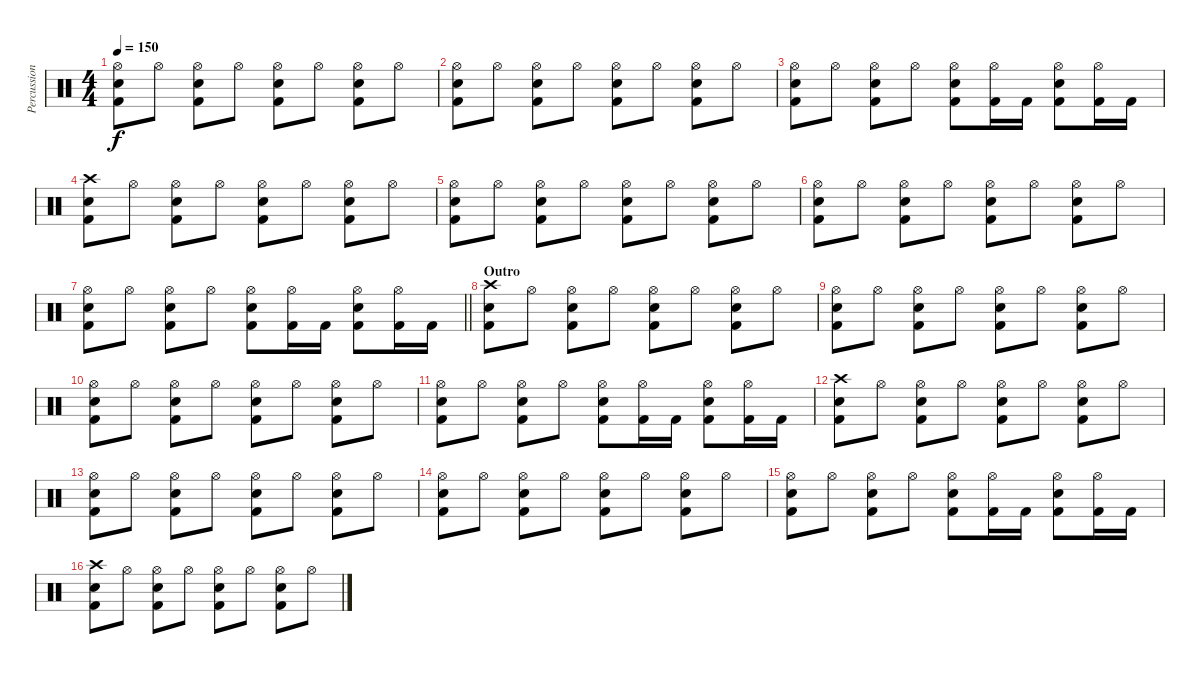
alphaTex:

\track ("Percussion" "Percussion") {instrument percussion}
\staff {score}
\articulation defaults
\ts (4 4)
\tempo 150
\clef neutral
\ks c
("Hi-Hat (open)" "Snare (hit) 2" "Kick (hit) 2").8{dy f} "Hi-Hat (open)".8 ("Hi-Hat (open)" "Snare (hit) 2" "Kick (hit) 2").8 "Hi-Hat (open)".8 ("Hi-Hat (open)" "Snare (hit) 2" "Kick (hit) 2").8 "Hi-Hat (open)".8 ("Hi-Hat (open)" "Snare (hit) 2" "Kick (hit) 2").8 "Hi-Hat (open)".8 |
("Hi-Hat (open)" "Snare (hit) 2" "Kick (hit) 2").8 "Hi-Hat (open)".8 ("Hi-Hat (open)" "Snare (hit) 2" "Kick (hit) 2").8 "Hi-Hat (open)".8 ("Hi-Hat (open)" "Snare (hit) 2" "Kick (hit) 2").8 "Hi-Hat (open)".8 ("Hi-Hat (open)" "Snare (hit) 2" "Kick (hit) 2").8 "Hi-Hat (open)".8 |
("Hi-Hat (open)" "Snare (hit) 2" "Kick (hit) 2").8 "Hi-Hat (open)".8 ("Hi-Hat (open)" "Snare (hit) 2" "Kick (hit) 2").8 "Hi-Hat (open)".8 ("Hi-Hat (open)" "Snare (hit) 2" "Kick (hit) 2").8 ("Hi-Hat (open)" "Kick (hit) 2").16 "Kick (hit) 2".16 ("Hi-Hat (open)" "Snare (hit) 2" "Kick (hit) 2").8 ("Hi-Hat (open)" "Kick (hit) 2").16 "Kick (hit) 2".16 |
("Crash high (hit)" "Snare (hit) 2" "Kick (hit) 2").8 "Hi-Hat (open)".8 ("Hi-Hat (open)" "Snare (hit) 2" "Kick (hit) 2").8 "Hi-Hat (open)".8 ("Hi-Hat (open)" "Snare (hit) 2" "Kick (hit) 2").8 "Hi-Hat (open)".8 ("Hi-Hat (open)" "Snare (hit) 2" "Kick (hit) 2").8 "Hi-Hat (open)".8 |
("Hi-Hat (open)" "Snare (hit) 2" "Kick (hit) 2").8 "Hi-Hat (open)".8 ("Hi-Hat (open)" "Snare (hit) 2" "Kick (hit) 2").8 "Hi-Hat (open)".8 ("Hi-Hat (open)" "Snare (hit) 2" "Kick (hit) 2").8 "Hi-Hat (open)".8 ("Hi-Hat (open)" "Snare (hit) 2" "Kick (hit) 2").8 "Hi-Hat (open)".8 |
("Hi-Hat (open)" "Snare (hit) 2" "Kick (hit) 2").8 "Hi-Hat (open)".8 ("Hi-Hat (open)" "Snare (hit) 2" "Kick (hit) 2").8 "Hi-Hat (open)".8 ("Hi-Hat (open)" "Snare (hit) 2" "Kick (hit) 2").8 "Hi-Hat (open)".8 ("Hi-Hat (open)" "Snare (hit) 2" "Kick (hit) 2").8 "Hi-Hat (open)".8 |
\barLineRight lightlight
("Hi-Hat (open)" "Snare (hit) 2" "Kick (hit) 2").8 "Hi-Hat (open)".8 ("Hi-Hat (open)" "Snare (hit) 2" "Kick (hit) 2").8 "Hi-Hat (open)".8 ("Hi-Hat (open)" "Snare (hit) 2" "Kick (hit) 2").8 ("Hi-Hat (open)" "Kick (hit) 2").16 "Kick (hit) 2".16 ("Hi-Hat (open)" "Snare (hit) 2" "Kick (hit) 2").8 ("Hi-Hat (open)" "Kick (hit) 2").16 "Kick (hit) 2".16 |
\section ("" "Outro")
("Crash high (hit)" "Snare (hit) 2" "Kick (hit) 2").8 "Hi-Hat (open)".8 ("Hi-Hat (open)" "Snare (hit) 2" "Kick (hit) 2").8 "Hi-Hat (open)".8 ("Hi-Hat (open)" "Snare (hit) 2" "Kick (hit) 2").8 "Hi-Hat (open)".8 ("Hi-Hat (open)" "Snare (hit) 2" "Kick (hit) 2").8 "Hi-Hat (open)".8 |
("Hi-Hat (open)" "Snare (hit) 2" "Kick (hit) 2").8 "Hi-Hat (open)".8 ("Hi-Hat (open)" "Snare (hit) 2" "Kick (hit) 2").8 "Hi-Hat (open)".8 ("Hi-Hat (open)" "Snare (hit) 2" "Kick (hit) 2").8 "Hi-Hat (open)".8 ("Hi-Hat (open)" "Snare (hit) 2" "Kick (hit) 2").8 "Hi-Hat (open)".8 |
("Hi-Hat (open)" "Snare (hit) 2" "Kick (hit) 2").8 "Hi-Hat (open)".8 ("Hi-Hat (open)" "Snare (hit) 2" "Kick (hit) 2").8 "Hi-Hat (open)".8 ("Hi-Hat (open)" "Snare (hit) 2" "Kick (hit) 2").8 "Hi-Hat (open)".8 ("Hi-Hat (open)" "Snare (hit) 2" "Kick (hit) 2").8 "Hi-Hat (open)".8 |
("Hi-Hat (open)" "Snare (hit) 2" "Kick (hit) 2").8 "Hi-Hat (open)".8 ("Hi-Hat (open)" "Snare (hit) 2" "Kick (hit) 2").8 "Hi-Hat (open)".8 ("Hi-Hat (open)" "Snare (hit) 2" "Kick (hit) 2").8 ("Hi-Hat (open)" "Kick (hit) 2").16 "Kick (hit) 2".16 ("Hi-Hat (open)" "Snare (hit) 2" "Kick (hit) 2").8 ("Hi-Hat (open)" "Kick (hit) 2").16 "Kick (hit) 2".16 |
("Crash high (hit)" "Snare (hit) 2" "Kick (hit) 2").8 "Hi-Hat (open)".8 ("Hi-Hat (open)" "Snare (hit) 2" "Kick (hit) 2").8 "Hi-Hat (open)".8 ("Hi-Hat (open)" "Snare (hit) 2" "Kick (hit) 2").8 "Hi-Hat (open)".8 ("Hi-Hat (open)" "Snare (hit) 2" "Kick (hit) 2").8 "Hi-Hat (open)".8 |
("Hi-Hat (open)" "Snare (hit) 2" "Kick (hit) 2").8 "Hi-Hat (open)".8 ("Hi-Hat (open)" "Snare (hit) 2" "Kick (hit) 2").8 "Hi-Hat (open)".8 ("Hi-Hat (open)" "Snare (hit) 2" "Kick (hit) 2").8 "Hi-Hat (open)".8 ("Hi-Hat (open)" "Snare (hit) 2" "Kick (hit) 2").8 "Hi-Hat (open)".8 |
("Hi-Hat (open)" "Snare (hit) 2" "Kick (hit) 2").8 "Hi-Hat (open)".8 ("Hi-Hat (open)" "Snare (hit) 2" "Kick (hit) 2").8 "Hi-Hat (open)".8 ("Hi-Hat (open)" "Snare (hit) 2" "Kick (hit) 2").8 "Hi-Hat (open)".8 ("Hi-Hat (open)" "Snare (hit) 2" "Kick (hit) 2").8 "Hi-Hat (open)".8 |
("Hi-Hat (open)" "Snare (hit) 2" "Kick (hit) 2").8 "Hi-Hat (open)".8 ("Hi-Hat (open)" "Snare (hit) 2" "Kick (hit) 2").8 "Hi-Hat (open)".8 ("Hi-Hat (open)" "Snare (hit) 2" "Kick (hit) 2").8 ("Hi-Hat (open)" "Kick (hit) 2").16 "Kick (hit) 2".16 ("Hi-Hat (open)" "Snare (hit) 2" "Kick (hit) 2").8 ("Hi-Hat (open)" "Kick (hit) 2").16 "Kick (hit) 2".16 |
("Crash high (hit)" "Snare (hit) 2" "Kick (hit) 2").8 "Hi-Hat (open)".8 ("Hi-Hat (open)" "Snare (hit) 2" "Kick (hit) 2").8 "Hi-Hat (open)".8 ("Hi-Hat (open)" "Snare (hit) 2" "Kick (hit) 2").8 "Hi-Hat (open)".8 ("Hi-Hat (open)" "Snare (hit) 2" "Kick (hit) 2").8 "Hi-Hat (open)".8
